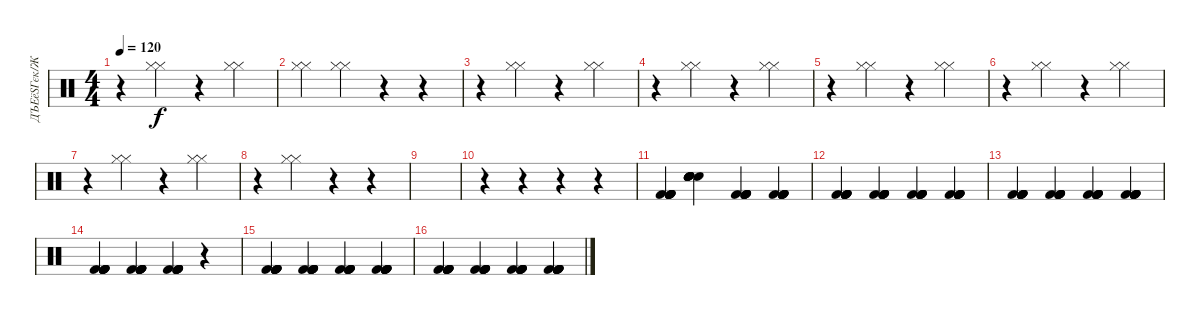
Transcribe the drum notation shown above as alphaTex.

\track ("ДЪЕёЅГєк/ЖК" "ДЪЕёЅГєк/Ж") {instrument percussion}
\staff {score}
\articulation defaults
\ts (4 4)
\tempo 120
\clef neutral
\ks c
r.4{dy f} ("Hi-Hat (closed)" "Hi-Hat (closed)").4 r.4 ("Hi-Hat (closed)" "Hi-Hat (closed)").4 |
("Hi-Hat (closed)" "Hi-Hat (closed)").4 ("Hi-Hat (closed)" "Hi-Hat (closed)").4 r.4 r.4 |
r.4 ("Hi-Hat (closed)" "Hi-Hat (closed)").4 r.4 ("Hi-Hat (closed)" "Hi-Hat (closed)").4 |
r.4 ("Hi-Hat (closed)" "Hi-Hat (closed)").4 r.4 ("Hi-Hat (closed)" "Hi-Hat (closed)").4 |
r.4 ("Hi-Hat (closed)" "Hi-Hat (closed)").4 r.4 ("Hi-Hat (closed)" "Hi-Hat (closed)").4 |
r.4 ("Hi-Hat (closed)" "Hi-Hat (closed)").4 r.4 ("Hi-Hat (closed)" "Hi-Hat (closed)").4 |
r.4 ("Hi-Hat (closed)" "Hi-Hat (closed)").4 r.4 ("Hi-Hat (closed)" "Hi-Hat (closed)").4 |
r.4 ("Hi-Hat (closed)" "Hi-Hat (closed)").4 r.4 r.4 |
|
r.4 r.4 r.4 r.4 |
("Kick (hit) 2" "Kick (hit) 2" "Kick (hit) 2" "Kick (hit) 2" "Kick (hit) 2" "Kick (hit) 2").4 ("Hand Clap (hit)" "Hand Clap (hit)" "Hand Clap (hit)" "Hand Clap (hit)" "Hand Clap (hit)" "Hand Clap (hit)").4 ("Kick (hit) 2" "Kick (hit) 2" "Kick (hit) 2" "Kick (hit) 2" "Kick (hit) 2" "Kick (hit) 2").4 ("Kick (hit) 2" "Kick (hit) 2" "Kick (hit) 2" "Kick (hit) 2" "Kick (hit) 2" "Kick (hit) 2").4 |
("Kick (hit) 2" "Kick (hit) 2" "Kick (hit) 2" "Kick (hit) 2" "Kick (hit) 2" "Kick (hit) 2").4 ("Kick (hit) 2" "Kick (hit) 2" "Kick (hit) 2" "Kick (hit) 2" "Kick (hit) 2" "Kick (hit) 2").4 ("Kick (hit) 2" "Kick (hit) 2" "Kick (hit) 2" "Kick (hit) 2" "Kick (hit) 2" "Kick (hit) 2").4 ("Kick (hit) 2" "Kick (hit) 2" "Kick (hit) 2" "Kick (hit) 2" "Kick (hit) 2" "Kick (hit) 2").4 |
("Kick (hit) 2" "Kick (hit) 2" "Kick (hit) 2" "Kick (hit) 2" "Kick (hit) 2" "Kick (hit) 2").4 ("Kick (hit) 2" "Kick (hit) 2" "Kick (hit) 2" "Kick (hit) 2" "Kick (hit) 2" "Kick (hit) 2").4 ("Kick (hit) 2" "Kick (hit) 2" "Kick (hit) 2" "Kick (hit) 2" "Kick (hit) 2" "Kick (hit) 2").4 ("Kick (hit) 2" "Kick (hit) 2" "Kick (hit) 2" "Kick (hit) 2" "Kick (hit) 2" "Kick (hit) 2").4 |
("Kick (hit) 2" "Kick (hit) 2" "Kick (hit) 2" "Kick (hit) 2" "Kick (hit) 2" "Kick (hit) 2").4 ("Kick (hit) 2" "Kick (hit) 2" "Kick (hit) 2" "Kick (hit) 2" "Kick (hit) 2" "Kick (hit) 2").4 ("Kick (hit) 2" "Kick (hit) 2" "Kick (hit) 2" "Kick (hit) 2" "Kick (hit) 2" "Kick (hit) 2").4 r.4 |
("Kick (hit) 2" "Kick (hit) 2" "Kick (hit) 2" "Kick (hit) 2" "Kick (hit) 2" "Kick (hit) 2").4 ("Kick (hit) 2" "Kick (hit) 2" "Kick (hit) 2" "Kick (hit) 2" "Kick (hit) 2" "Kick (hit) 2").4 ("Kick (hit) 2" "Kick (hit) 2" "Kick (hit) 2" "Kick (hit) 2" "Kick (hit) 2" "Kick (hit) 2").4 ("Kick (hit) 2" "Kick (hit) 2" "Kick (hit) 2" "Kick (hit) 2" "Kick (hit) 2" "Kick (hit) 2").4 |
("Kick (hit) 2" "Kick (hit) 2" "Kick (hit) 2" "Kick (hit) 2" "Kick (hit) 2" "Kick (hit) 2").4 ("Kick (hit) 2" "Kick (hit) 2" "Kick (hit) 2" "Kick (hit) 2" "Kick (hit) 2" "Kick (hit) 2").4 ("Kick (hit) 2" "Kick (hit) 2" "Kick (hit) 2" "Kick (hit) 2" "Kick (hit) 2" "Kick (hit) 2").4 ("Kick (hit) 2" "Kick (hit) 2" "Kick (hit) 2" "Kick (hit) 2" "Kick (hit) 2" "Kick (hit) 2").4
